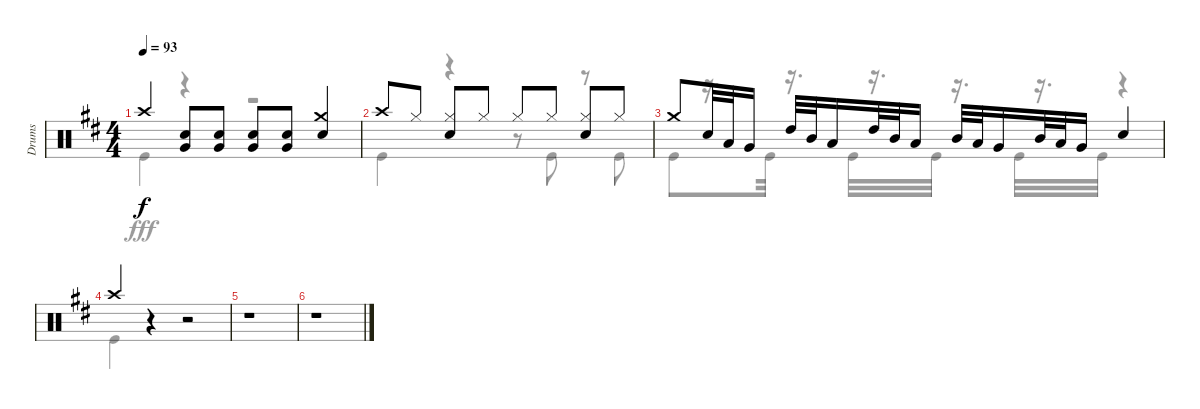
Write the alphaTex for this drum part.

\track ("Drums" "Drums") {instrument percussion}
\staff {score}
\articulation defaults
\voice
\ts (4 4)
\tempo 93
\clef neutral
\ks d "Crash high (hit)".4{dy f}
("Snare (hit) 2" "Very Low Tom (hit)").8 ("Snare (hit) 2" "Very Low Tom (hit)").8 ("Snare (hit) 2" "Very Low Tom (hit)").8 ("Snare (hit) 2" "Very Low Tom (hit)").8 ("Snare (hit) 2" "Crash medium (hit)").4 |
"Crash high (hit)".8 "Hi-Hat (closed)".8 ("Hi-Hat (closed)" "Snare (hit) 2").8 "Hi-Hat (closed)".8 "Hi-Hat (closed)".8 "Hi-Hat (closed)".8 ("Hi-Hat (closed)" "Snare (hit) 2").8 "Hi-Hat (closed)".8 |
"Crash medium (hit)".8 "Snare (hit) 2".32 "Low Tom (hit)".32 "Very Low Tom (hit)".16 "High Tom (hit)".32 "Mid Tom (hit)".32 "Low Tom (hit)".16 "High Tom (hit)".32 "Mid Tom (hit)".32 "Low Tom (hit)".16 "Mid Tom (hit)".32 "Low Tom (hit)".32 "Very Low Tom (hit)".16 "Mid Tom (hit)".32 "Low Tom (hit)".32 "Very Low Tom (hit)".16 "Snare (hit) 2".4 |
"Crash high (hit)".4 r.4 r.2 |
r.1 |
r.1
\voice
\clef neutral
\ottava regular
\simile none
\ks d "Kick (hit)".4{dy fff}
r.4 r.2 |
"Kick (hit)".4 r.4 r.8 "Kick (hit)".8 r.8 "Kick (hit)".8 |
"Kick (hit)".8 r.16{d} "Kick (hit)".32 r.16{d} "Kick (hit)".32 r.16{d} "Kick (hit)".32 r.16{d} "Kick (hit)".32 r.16{d} "Kick (hit)".32 r.4 |
"Kick (hit)".4 r.4 r.2 |
r.1 |
r.1
